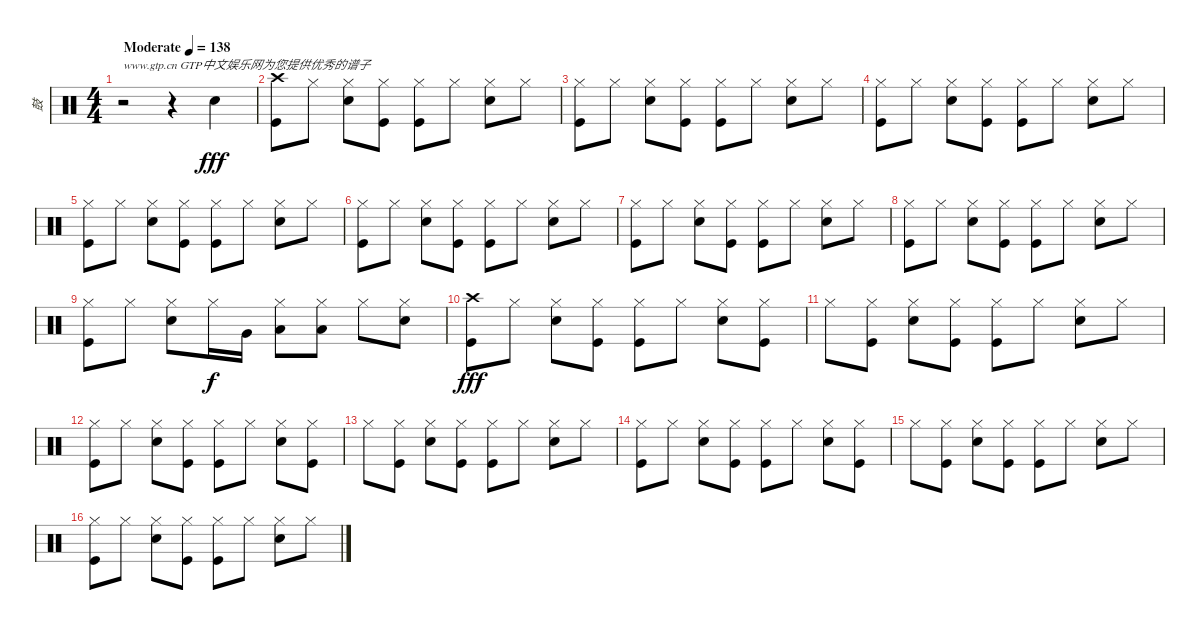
\track ("鼓" "鼓") {instrument percussion}
\staff {score}
\articulation defaults
\ts (4 4)
\tempo (138 "Moderate")
\clef neutral
\ks c
r.2{txt "www.gtp.cn GTP中文娱乐网为您提供优秀的谱子" dy fff} r.4 "Snare (hit) 2".4 |
("Crash high (hit)" "Kick (hit)").8 "Hi-Hat (closed)".8 ("Hi-Hat (closed)" "Snare (hit) 2").8 ("Hi-Hat (closed)" "Kick (hit)").8 ("Hi-Hat (closed)" "Kick (hit)").8 "Hi-Hat (closed)".8 ("Hi-Hat (closed)" "Snare (hit) 2").8 "Hi-Hat (closed)".8 |
("Hi-Hat (closed)" "Kick (hit)").8 "Hi-Hat (closed)".8 ("Hi-Hat (closed)" "Snare (hit) 2").8 ("Hi-Hat (closed)" "Kick (hit)").8 ("Hi-Hat (closed)" "Kick (hit)").8 "Hi-Hat (closed)".8 ("Hi-Hat (closed)" "Snare (hit) 2").8 "Hi-Hat (closed)".8 |
("Hi-Hat (closed)" "Kick (hit)").8 "Hi-Hat (closed)".8 ("Hi-Hat (closed)" "Snare (hit) 2").8 ("Hi-Hat (closed)" "Kick (hit)").8 ("Hi-Hat (closed)" "Kick (hit)").8 "Hi-Hat (closed)".8 ("Hi-Hat (closed)" "Snare (hit) 2").8 "Hi-Hat (closed)".8 |
("Hi-Hat (closed)" "Kick (hit)").8 "Hi-Hat (closed)".8 ("Hi-Hat (closed)" "Snare (hit) 2").8 ("Hi-Hat (closed)" "Kick (hit)").8 ("Hi-Hat (closed)" "Kick (hit)").8 "Hi-Hat (closed)".8 ("Hi-Hat (closed)" "Snare (hit) 2").8 "Hi-Hat (closed)".8 |
("Hi-Hat (closed)" "Kick (hit)").8 "Hi-Hat (closed)".8 ("Hi-Hat (closed)" "Snare (hit) 2").8 ("Hi-Hat (closed)" "Kick (hit)").8 ("Hi-Hat (closed)" "Kick (hit)").8 "Hi-Hat (closed)".8 ("Hi-Hat (closed)" "Snare (hit) 2").8 "Hi-Hat (closed)".8 |
("Hi-Hat (closed)" "Kick (hit)").8 "Hi-Hat (closed)".8 ("Hi-Hat (closed)" "Snare (hit) 2").8 ("Hi-Hat (closed)" "Kick (hit)").8 ("Hi-Hat (closed)" "Kick (hit)").8 "Hi-Hat (closed)".8 ("Hi-Hat (closed)" "Snare (hit) 2").8 "Hi-Hat (closed)".8 |
("Hi-Hat (closed)" "Kick (hit)").8 "Hi-Hat (closed)".8 ("Hi-Hat (closed)" "Snare (hit) 2").8 ("Hi-Hat (closed)" "Kick (hit)").8 ("Hi-Hat (closed)" "Kick (hit)").8 "Hi-Hat (closed)".8 ("Hi-Hat (closed)" "Snare (hit) 2").8 "Hi-Hat (closed)".8 |
("Hi-Hat (closed)" "Kick (hit)").8 "Hi-Hat (closed)".8 ("Hi-Hat (closed)" "Snare (hit) 2").8 "Hi-Hat (closed)".16{dy f} "Very Low Tom (hit)".16 ("Hi-Hat (closed)" "Low Tom (hit)").8 ("Hi-Hat (closed)" "Low Tom (hit)").8 "Hi-Hat (closed)".8 ("Hi-Hat (closed)" "Snare (hit) 2").8 |
("Crash high (hit)" "Kick (hit)").8{dy fff} "Hi-Hat (closed)".8 ("Hi-Hat (closed)" "Snare (hit) 2").8 ("Hi-Hat (closed)" "Kick (hit)").8 ("Hi-Hat (closed)" "Kick (hit)").8 "Hi-Hat (closed)".8 ("Hi-Hat (closed)" "Snare (hit) 2").8 ("Hi-Hat (closed)" "Kick (hit)").8 |
"Hi-Hat (closed)".8 ("Hi-Hat (closed)" "Kick (hit)").8 ("Hi-Hat (closed)" "Snare (hit) 2").8 ("Hi-Hat (closed)" "Kick (hit)").8 ("Hi-Hat (closed)" "Kick (hit)").8 "Hi-Hat (closed)".8 ("Hi-Hat (closed)" "Snare (hit) 2").8 "Hi-Hat (closed)".8 |
("Hi-Hat (closed)" "Kick (hit)").8 "Hi-Hat (closed)".8 ("Hi-Hat (closed)" "Snare (hit) 2").8 ("Hi-Hat (closed)" "Kick (hit)").8 ("Hi-Hat (closed)" "Kick (hit)").8 "Hi-Hat (closed)".8 ("Hi-Hat (closed)" "Snare (hit) 2").8 ("Hi-Hat (closed)" "Kick (hit)").8 |
"Hi-Hat (closed)".8 ("Hi-Hat (closed)" "Kick (hit)").8 ("Hi-Hat (closed)" "Snare (hit) 2").8 ("Hi-Hat (closed)" "Kick (hit)").8 ("Hi-Hat (closed)" "Kick (hit)").8 "Hi-Hat (closed)".8 ("Hi-Hat (closed)" "Snare (hit) 2").8 "Hi-Hat (closed)".8 |
("Hi-Hat (closed)" "Kick (hit)").8 "Hi-Hat (closed)".8 ("Hi-Hat (closed)" "Snare (hit) 2").8 ("Hi-Hat (closed)" "Kick (hit)").8 ("Hi-Hat (closed)" "Kick (hit)").8 "Hi-Hat (closed)".8 ("Hi-Hat (closed)" "Snare (hit) 2").8 ("Hi-Hat (closed)" "Kick (hit)").8 |
"Hi-Hat (closed)".8 ("Hi-Hat (closed)" "Kick (hit)").8 ("Hi-Hat (closed)" "Snare (hit) 2").8 ("Hi-Hat (closed)" "Kick (hit)").8 ("Hi-Hat (closed)" "Kick (hit)").8 "Hi-Hat (closed)".8 ("Hi-Hat (closed)" "Snare (hit) 2").8 "Hi-Hat (closed)".8 |
("Hi-Hat (closed)" "Kick (hit)").8 "Hi-Hat (closed)".8 ("Hi-Hat (closed)" "Snare (hit) 2").8 ("Hi-Hat (closed)" "Kick (hit)").8 ("Hi-Hat (closed)" "Kick (hit)").8 "Hi-Hat (closed)".8 ("Hi-Hat (closed)" "Snare (hit) 2").8 "Hi-Hat (closed)".8
